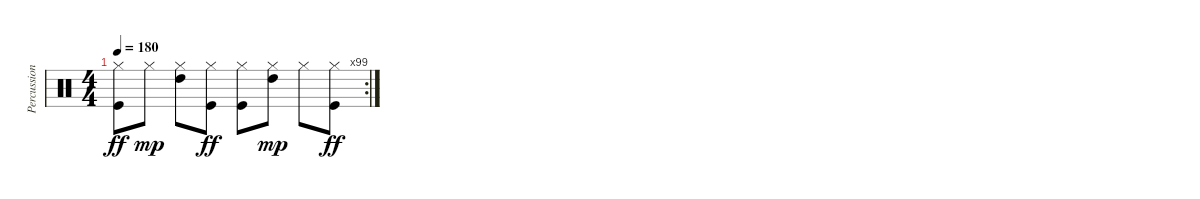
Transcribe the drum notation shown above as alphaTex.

\track ("Percussions" "Percussion") {instrument percussion}
\staff {score}
\articulation defaults
\rc 99
\ts (4 4)
\tempo 180
\clef neutral
\ks c
("Hi-Hat (closed)" "Kick (hit)").8{dy ff} "Hi-Hat (closed)".8{dy mp} ("Hi-Hat (closed)" "High Tom (hit)").8 ("Hi-Hat (closed)" "Kick (hit)").8{dy ff} ("Hi-Hat (closed)" "Kick (hit)").8 ("Hi-Hat (closed)" "High Tom (hit)").8{dy mp} "Hi-Hat (closed)".8 ("Hi-Hat (closed)" "Kick (hit)").8{dy ff}
